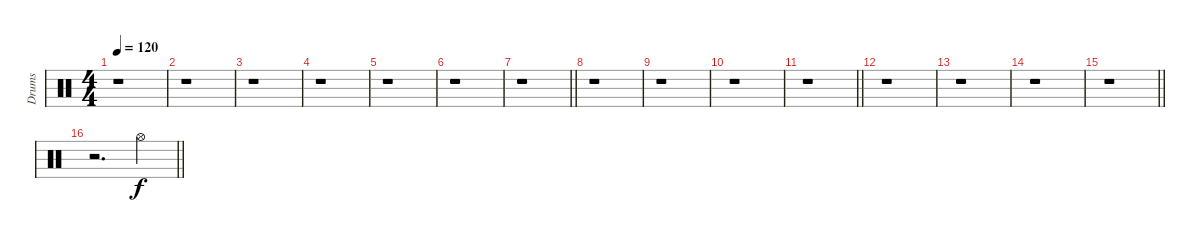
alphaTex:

\track ("Drums" "Drums") {instrument percussion}
\staff {score}
\articulation defaults
\ts (4 4)
\tempo 120
\clef neutral
\ks c
r.1{dy f} |
r.1 |
r.1 |
r.1 |
r.1 |
r.1 |
\barLineRight lightlight
r.1 |
r.1 |
r.1 |
r.1 |
\barLineRight lightlight
r.1 |
r.1 |
r.1 |
r.1 |
\barLineRight lightlight
r.1 |
\section ("" " ")
\barLineRight lightlight
r.2{d} "Hi-Hat (open)".4
